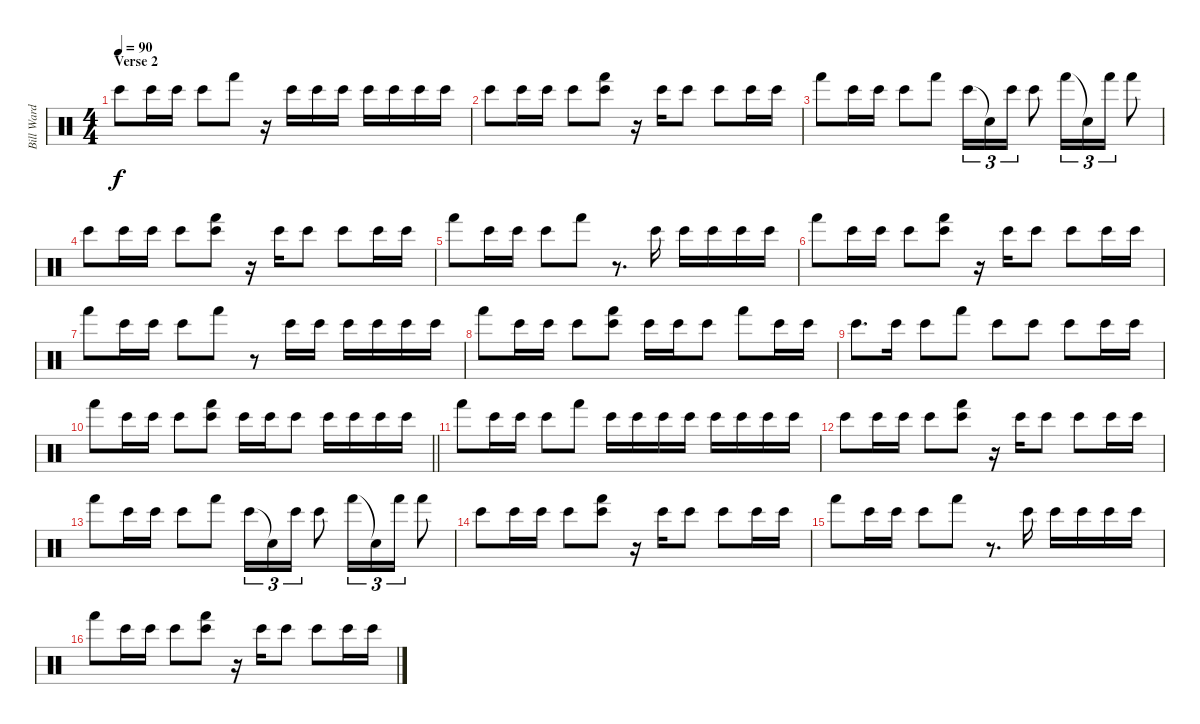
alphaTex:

\track ("Bill Ward" "Bill Ward") {instrument percussion}
\staff {score}
\articulation defaults
\ts (4 4)
\section ("" "Verse 2")
\tempo 90
\clef neutral
\ks c "Bongo High (hit)".8{dy f} "Bongo High (hit)".16 "Bongo High (hit)".16 "Bongo High (hit)".8 "Hand (hit)".8
r.16 "Bongo High (hit)".16 "Bongo High (hit)".16 "Bongo High (hit)".16 "Bongo High (hit)".16 "Bongo High (hit)".16 "Bongo High (hit)".16 "Bongo High (hit)".16 |
"Bongo High (hit)".8 "Bongo High (hit)".16 "Bongo High (hit)".16 "Bongo High (hit)".8 ("Bongo High (hit)" "Hand (hit)").8 r.16 "Bongo High (hit)".16 "Bongo High (hit)".8 "Bongo High (hit)".8 "Bongo High (hit)".16 "Bongo High (hit)".16 |
"Hand (hit)".8 "Bongo High (hit)".16 "Bongo High (hit)".16 "Bongo High (hit)".8 "Hand (hit)".8 "Bongo High (hit)".16{tu (3 2)} "Snare (hit)"{t}.16{tu (3 2)} "Bongo High (hit)".16{tu (3 2)} "Bongo High (hit)".8 "Hand (hit)".16{tu (3 2)} "Snare (hit)"{t}.16{tu (3 2)} "Hand (hit)".16{tu (3 2)} "Hand (hit)".8 |
"Bongo High (hit)".8 "Bongo High (hit)".16 "Bongo High (hit)".16 "Bongo High (hit)".8 ("Bongo High (hit)" "Hand (hit)").8 r.16 "Bongo High (hit)".16 "Bongo High (hit)".8 "Bongo High (hit)".8 "Bongo High (hit)".16 "Bongo High (hit)".16 |
"Hand (hit)".8 "Bongo High (hit)".16 "Bongo High (hit)".16 "Bongo High (hit)".8 "Hand (hit)".8 r.8{d} "Bongo High (hit)".16 "Bongo High (hit)".16 "Bongo High (hit)".16 "Bongo High (hit)".16 "Bongo High (hit)".16 |
"Hand (hit)".8 "Bongo High (hit)".16 "Bongo High (hit)".16 "Bongo High (hit)".8 ("Bongo High (hit)" "Hand (hit)").8 r.16 "Bongo High (hit)".16 "Bongo High (hit)".8 "Bongo High (hit)".8 "Bongo High (hit)".16 "Bongo High (hit)".16 |
"Hand (hit)".8 "Bongo High (hit)".16 "Bongo High (hit)".16 "Bongo High (hit)".8 "Hand (hit)".8 r.8 "Bongo High (hit)".16 "Bongo High (hit)".16 "Bongo High (hit)".16 "Bongo High (hit)".16 "Bongo High (hit)".16 "Bongo High (hit)".16 |
"Hand (hit)".8 "Bongo High (hit)".16 "Bongo High (hit)".16 "Bongo High (hit)".8 ("Bongo High (hit)" "Hand (hit)").8 "Bongo High (hit)".16 "Bongo High (hit)".16 "Bongo High (hit)".8 "Hand (hit)".8 "Bongo High (hit)".16 "Bongo High (hit)".16 |
"Bongo High (hit)".8{d} "Bongo High (hit)".16 "Bongo High (hit)".8 "Hand (hit)".8 "Bongo High (hit)".8 "Bongo High (hit)".8 "Bongo High (hit)".8 "Bongo High (hit)".16 "Bongo High (hit)".16 |
\barLineRight lightlight "Hand (hit)".8 "Bongo High (hit)".16 "Bongo High (hit)".16 "Bongo High (hit)".8
("Bongo High (hit)" "Hand (hit)").8 "Bongo High (hit)".16 "Bongo High (hit)".16 "Bongo High (hit)".8 "Bongo High (hit)".16 "Bongo High (hit)".16 "Bongo High (hit)".16 "Bongo High (hit)".16 |
"Hand (hit)".8 "Bongo High (hit)".16 "Bongo High (hit)".16 "Bongo High (hit)".8 "Hand (hit)".8 "Bongo High (hit)".16 "Bongo High (hit)".16 "Bongo High (hit)".16 "Bongo High (hit)".16 "Bongo High (hit)".16 "Bongo High (hit)".16 "Bongo High (hit)".16 "Bongo High (hit)".16 |
"Bongo High (hit)".8 "Bongo High (hit)".16 "Bongo High (hit)".16 "Bongo High (hit)".8 ("Bongo High (hit)" "Hand (hit)").8 r.16 "Bongo High (hit)".16 "Bongo High (hit)".8 "Bongo High (hit)".8 "Bongo High (hit)".16 "Bongo High (hit)".16 |
"Hand (hit)".8 "Bongo High (hit)".16 "Bongo High (hit)".16 "Bongo High (hit)".8 "Hand (hit)".8 "Bongo High (hit)".16{tu (3 2)} "Snare (hit)"{t}.16{tu (3 2)} "Bongo High (hit)".16{tu (3 2)} "Bongo High (hit)".8 "Hand (hit)".16{tu (3 2)} "Snare (hit)"{t}.16{tu (3 2)} "Hand (hit)".16{tu (3 2)} "Hand (hit)".8 |
"Bongo High (hit)".8 "Bongo High (hit)".16 "Bongo High (hit)".16 "Bongo High (hit)".8 ("Bongo High (hit)" "Hand (hit)").8 r.16 "Bongo High (hit)".16 "Bongo High (hit)".8 "Bongo High (hit)".8 "Bongo High (hit)".16 "Bongo High (hit)".16 |
"Hand (hit)".8 "Bongo High (hit)".16 "Bongo High (hit)".16 "Bongo High (hit)".8 "Hand (hit)".8 r.8{d} "Bongo High (hit)".16 "Bongo High (hit)".16 "Bongo High (hit)".16 "Bongo High (hit)".16 "Bongo High (hit)".16 |
"Hand (hit)".8 "Bongo High (hit)".16 "Bongo High (hit)".16 "Bongo High (hit)".8 ("Bongo High (hit)" "Hand (hit)").8 r.16 "Bongo High (hit)".16 "Bongo High (hit)".8 "Bongo High (hit)".8 "Bongo High (hit)".16 "Bongo High (hit)".16
